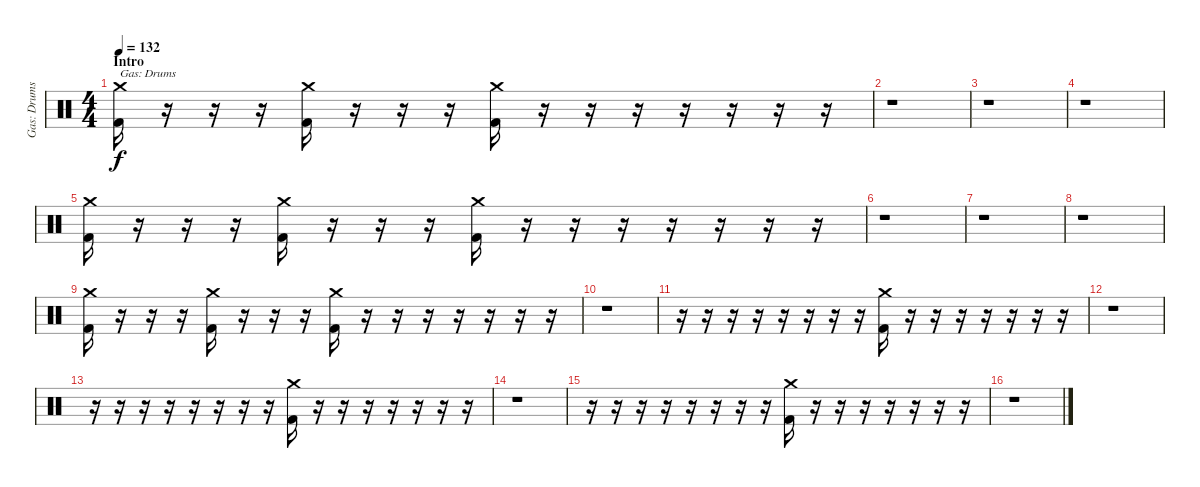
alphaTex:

\track ("Gas: Drums" "Gas: Drums") {instrument percussion}
\staff {score}
\articulation defaults
\ts (4 4)
\section ("" "Intro")
\tempo 132
\clef neutral
\ks c
("Crash medium (hit)" "Kick (hit) 2").16{txt "Gas: Drums" dy f} r.16 r.16 r.16 ("Crash medium (hit)" "Kick (hit) 2").16 r.16 r.16 r.16 ("Crash medium (hit)" "Kick (hit) 2").16 r.16 r.16 r.16 r.16 r.16 r.16 r.16 |
r.1 |
r.1 |
r.1 |
("Crash medium (hit)" "Kick (hit) 2").16 r.16 r.16 r.16 ("Crash medium (hit)" "Kick (hit) 2").16 r.16 r.16 r.16 ("Crash medium (hit)" "Kick (hit) 2").16 r.16 r.16 r.16 r.16 r.16 r.16 r.16 |
r.1 |
r.1 |
r.1 |
("Crash medium (hit)" "Kick (hit) 2").16 r.16 r.16 r.16 ("Crash medium (hit)" "Kick (hit) 2").16 r.16 r.16 r.16 ("Crash medium (hit)" "Kick (hit) 2").16 r.16 r.16 r.16 r.16 r.16 r.16 r.16 |
r.1 |
r.16 r.16 r.16 r.16 r.16 r.16 r.16 r.16 ("Crash medium (hit)" "Kick (hit) 2").16 r.16 r.16 r.16 r.16 r.16 r.16 r.16 |
r.1 |
r.16 r.16 r.16 r.16 r.16 r.16 r.16 r.16 ("Crash medium (hit)" "Kick (hit) 2").16 r.16 r.16 r.16 r.16 r.16 r.16 r.16 |
r.1 |
r.16 r.16 r.16 r.16 r.16 r.16 r.16 r.16 ("Crash medium (hit)" "Kick (hit) 2").16 r.16 r.16 r.16 r.16 r.16 r.16 r.16 |
r.1
